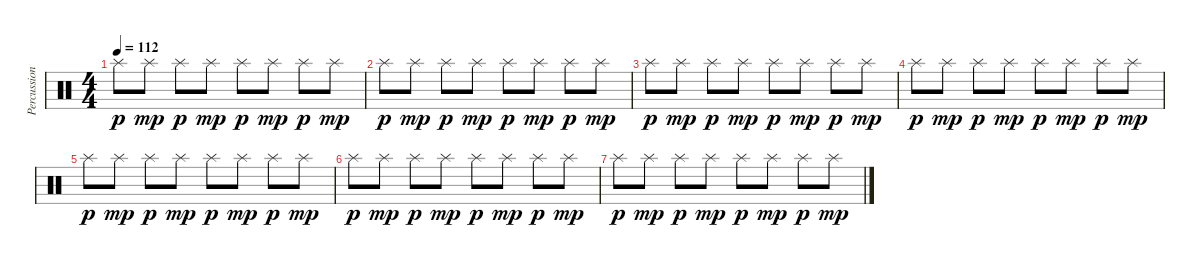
\track ("Percussion" "Percussion") {instrument percussion}
\staff {score}
\articulation defaults
\ts (4 4)
\tempo 112
\clef neutral
\ks c "Splash (hit)".8{dy p} "Splash (hit)".8{dy mp} "Splash (hit)".8{dy p} "Splash (hit)".8{dy mp} "Splash (hit)".8{dy p} "Splash (hit)".8{dy mp} "Splash (hit)".8{dy p} "Splash (hit)".8{dy mp}
|
"Splash (hit)".8{dy p} "Splash (hit)".8{dy mp} "Splash (hit)".8{dy p} "Splash (hit)".8{dy mp} "Splash (hit)".8{dy p} "Splash (hit)".8{dy mp} "Splash (hit)".8{dy p} "Splash (hit)".8{dy mp} |
"Splash (hit)".8{dy p} "Splash (hit)".8{dy mp} "Splash (hit)".8{dy p} "Splash (hit)".8{dy mp} "Splash (hit)".8{dy p} "Splash (hit)".8{dy mp} "Splash (hit)".8{dy p} "Splash (hit)".8{dy mp} |
"Splash (hit)".8{dy p} "Splash (hit)".8{dy mp} "Splash (hit)".8{dy p} "Splash (hit)".8{dy mp} "Splash (hit)".8{dy p} "Splash (hit)".8{dy mp} "Splash (hit)".8{dy p} "Splash (hit)".8{dy mp} |
"Splash (hit)".8{dy p} "Splash (hit)".8{dy mp} "Splash (hit)".8{dy p} "Splash (hit)".8{dy mp} "Splash (hit)".8{dy p} "Splash (hit)".8{dy mp} "Splash (hit)".8{dy p} "Splash (hit)".8{dy mp} |
"Splash (hit)".8{dy p} "Splash (hit)".8{dy mp} "Splash (hit)".8{dy p} "Splash (hit)".8{dy mp} "Splash (hit)".8{dy p} "Splash (hit)".8{dy mp} "Splash (hit)".8{dy p} "Splash (hit)".8{dy mp} |
"Splash (hit)".8{dy p} "Splash (hit)".8{dy mp} "Splash (hit)".8{dy p} "Splash (hit)".8{dy mp} "Splash (hit)".8{dy p} "Splash (hit)".8{dy mp} "Splash (hit)".8{dy p} "Splash (hit)".8{dy mp}
